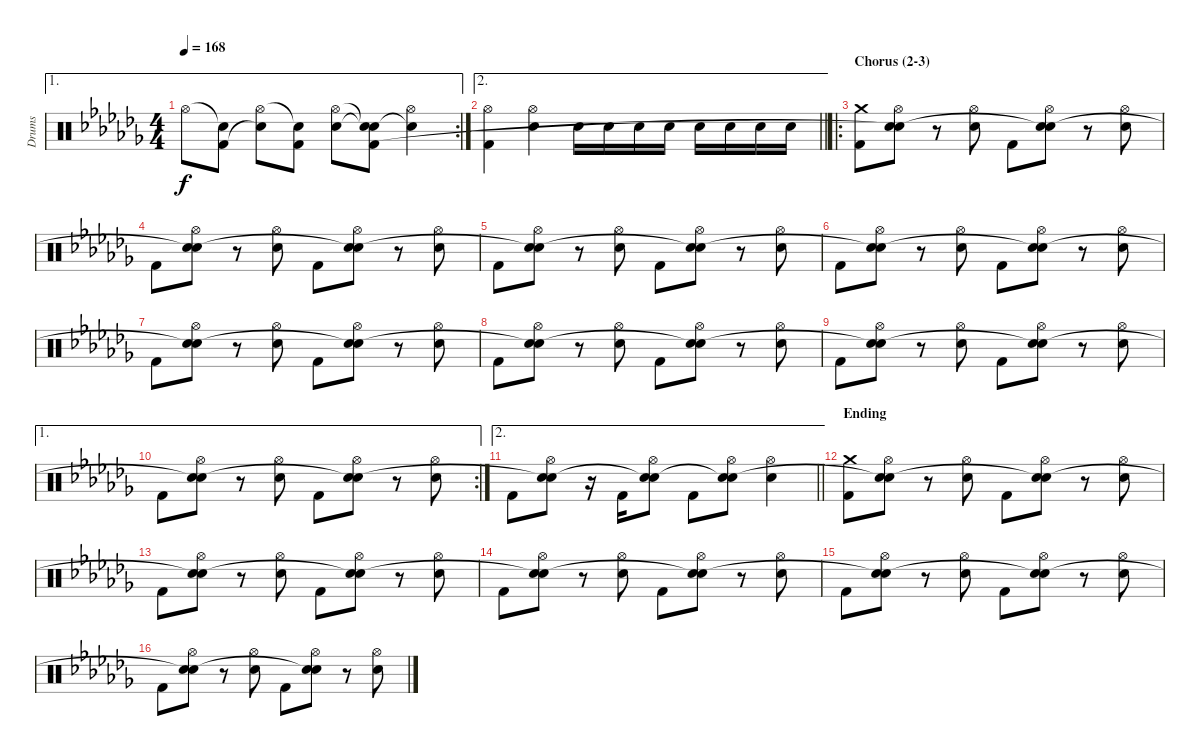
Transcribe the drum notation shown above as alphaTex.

\track ("Drums" "Drums") {instrument percussion}
\staff {score}
\articulation defaults
\ae 1
\rc 2
\ts (4 4)
\tempo 168
\clef neutral
\ks abminor "Hi-Hat (open)".8{dy f}
("Snare (hit)"{t} "Kick (hit) 2").8 ("Hi-Hat (open)" "Snare (hit)"{t}).8 ("Snare (hit)"{t} "Kick (hit) 2").8 ("Hi-Hat (open)" "Electric Snare (hit)").8 ("Snare (hit)"{t} "Snare (hit)"{t} "Kick (hit) 2").8 ("Hi-Hat (open)" "Snare (hit)"{t}).4 |
\ae 2
\barLineRight lightlight
("Hi-Hat (open)" "Kick (hit) 2").4 ("Hi-Hat (open)" "Electric Snare (hit)").4 "Electric Snare (hit)".16 "Electric Snare (hit)".16 "Electric Snare (hit)".16 "Electric Snare (hit)".16 "Electric Snare (hit)".16 "Electric Snare (hit)".16 "Electric Snare (hit)".16 "Electric Snare (hit)".16 |
\ro
\section ("" "Chorus (2-3)")
("Crash medium (hit)" "Kick (hit) 2").8 ("Hi-Hat (open)" "Electric Snare (hit)" "Snare (hit)"{t}).8 r.8 ("Hi-Hat (open)" "Electric Snare (hit)").8 "Kick (hit) 2".8 ("Hi-Hat (open)" "Electric Snare (hit)" "Snare (hit)"{t}).8 r.8 ("Hi-Hat (open)" "Electric Snare (hit)").8 |
"Kick (hit) 2".8 ("Hi-Hat (open)" "Electric Snare (hit)" "Snare (hit)"{t}).8 r.8 ("Hi-Hat (open)" "Electric Snare (hit)").8 "Kick (hit) 2".8 ("Hi-Hat (open)" "Electric Snare (hit)" "Snare (hit)"{t}).8 r.8 ("Hi-Hat (open)" "Electric Snare (hit)").8 |
"Kick (hit) 2".8 ("Hi-Hat (open)" "Electric Snare (hit)" "Snare (hit)"{t}).8 r.8 ("Hi-Hat (open)" "Electric Snare (hit)").8 "Kick (hit) 2".8 ("Hi-Hat (open)" "Electric Snare (hit)" "Snare (hit)"{t}).8 r.8 ("Hi-Hat (open)" "Electric Snare (hit)").8 |
"Kick (hit) 2".8 ("Hi-Hat (open)" "Electric Snare (hit)" "Snare (hit)"{t}).8 r.8 ("Hi-Hat (open)" "Electric Snare (hit)").8 "Kick (hit) 2".8 ("Hi-Hat (open)" "Electric Snare (hit)" "Snare (hit)"{t}).8 r.8 ("Hi-Hat (open)" "Electric Snare (hit)").8 |
"Kick (hit) 2".8 ("Hi-Hat (open)" "Electric Snare (hit)" "Snare (hit)"{t}).8 r.8 ("Hi-Hat (open)" "Electric Snare (hit)").8 "Kick (hit) 2".8 ("Hi-Hat (open)" "Electric Snare (hit)" "Snare (hit)"{t}).8 r.8 ("Hi-Hat (open)" "Electric Snare (hit)").8 |
"Kick (hit) 2".8 ("Hi-Hat (open)" "Electric Snare (hit)" "Snare (hit)"{t}).8 r.8 ("Hi-Hat (open)" "Electric Snare (hit)").8 "Kick (hit) 2".8 ("Hi-Hat (open)" "Electric Snare (hit)" "Snare (hit)"{t}).8 r.8 ("Hi-Hat (open)" "Electric Snare (hit)").8 |
"Kick (hit) 2".8 ("Hi-Hat (open)" "Electric Snare (hit)" "Snare (hit)"{t}).8 r.8 ("Hi-Hat (open)" "Electric Snare (hit)").8 "Kick (hit) 2".8 ("Hi-Hat (open)" "Electric Snare (hit)" "Snare (hit)"{t}).8 r.8 ("Hi-Hat (open)" "Electric Snare (hit)").8 |
\ae 1
\rc 2 "Kick (hit) 2".8
("Hi-Hat (open)" "Electric Snare (hit)" "Snare (hit)"{t}).8 r.8 ("Hi-Hat (open)" "Electric Snare (hit)").8 "Kick (hit) 2".8 ("Hi-Hat (open)" "Electric Snare (hit)" "Snare (hit)"{t}).8 r.8 ("Hi-Hat (open)" "Electric Snare (hit)").8 |
\ae 2
\barLineRight lightlight "Kick (hit) 2".8
("Hi-Hat (open)" "Electric Snare (hit)" "Snare (hit)"{t}).8 r.16 "Kick (hit) 2".16 ("Hi-Hat (open)" "Electric Snare (hit)" "Snare (hit)"{t}).8 "Kick (hit) 2".8 ("Hi-Hat (open)" "Electric Snare (hit)" "Snare (hit)"{t}).8 ("Hi-Hat (open)" "Electric Snare (hit)").4 |
\section ("" "Ending")
("Crash medium (hit)" "Kick (hit) 2").8 ("Hi-Hat (open)" "Electric Snare (hit)" "Snare (hit)"{t}).8 r.8 ("Hi-Hat (open)" "Electric Snare (hit)").8 "Kick (hit) 2".8 ("Hi-Hat (open)" "Electric Snare (hit)" "Snare (hit)"{t}).8 r.8 ("Hi-Hat (open)" "Electric Snare (hit)").8 |
"Kick (hit) 2".8 ("Hi-Hat (open)" "Electric Snare (hit)" "Snare (hit)"{t}).8 r.8 ("Hi-Hat (open)" "Electric Snare (hit)").8 "Kick (hit) 2".8 ("Hi-Hat (open)" "Electric Snare (hit)" "Snare (hit)"{t}).8 r.8 ("Hi-Hat (open)" "Electric Snare (hit)").8 |
"Kick (hit) 2".8 ("Hi-Hat (open)" "Electric Snare (hit)" "Snare (hit)"{t}).8 r.8 ("Hi-Hat (open)" "Electric Snare (hit)").8 "Kick (hit) 2".8 ("Hi-Hat (open)" "Electric Snare (hit)" "Snare (hit)"{t}).8 r.8 ("Hi-Hat (open)" "Electric Snare (hit)").8 |
"Kick (hit) 2".8 ("Hi-Hat (open)" "Electric Snare (hit)" "Snare (hit)"{t}).8 r.8 ("Hi-Hat (open)" "Electric Snare (hit)").8 "Kick (hit) 2".8 ("Hi-Hat (open)" "Electric Snare (hit)" "Snare (hit)"{t}).8 r.8 ("Hi-Hat (open)" "Electric Snare (hit)").8 |
"Kick (hit) 2".8 ("Hi-Hat (open)" "Electric Snare (hit)" "Snare (hit)"{t}).8 r.8 ("Hi-Hat (open)" "Electric Snare (hit)").8 "Kick (hit) 2".8 ("Hi-Hat (open)" "Electric Snare (hit)" "Snare (hit)"{t}).8 r.8 ("Hi-Hat (open)" "Electric Snare (hit)").8
